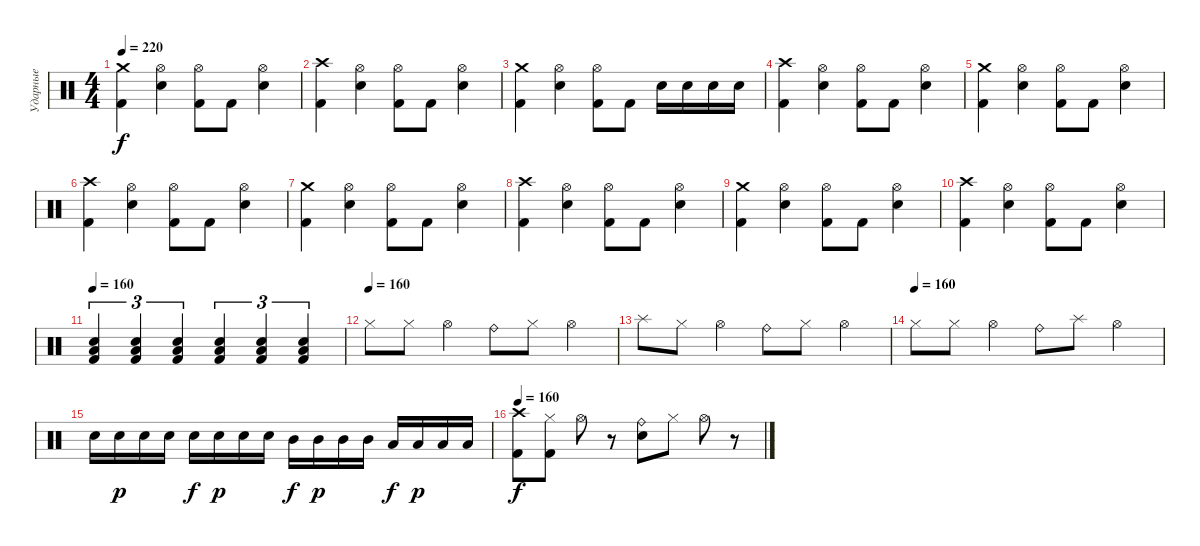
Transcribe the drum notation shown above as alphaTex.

\track ("Ударные" "Ударные") {instrument percussion}
\staff {score}
\articulation defaults
\ts (4 4)
\tempo 220
\clef neutral
\ks c
("Crash medium (hit)" "Kick (hit) 2").4{dy f} ("Hi-Hat (open)" "Electric Snare (hit)").4 ("Hi-Hat (open)" "Kick (hit) 2").8 "Kick (hit) 2".8 ("Hi-Hat (open)" "Electric Snare (hit)").4 |
("Crash high (hit)" "Kick (hit) 2").4 ("Hi-Hat (open)" "Electric Snare (hit)").4 ("Hi-Hat (open)" "Kick (hit) 2").8 "Kick (hit) 2".8 ("Hi-Hat (open)" "Electric Snare (hit)").4 |
("Crash medium (hit)" "Kick (hit) 2").4 ("Hi-Hat (open)" "Electric Snare (hit)").4 ("Hi-Hat (open)" "Kick (hit) 2").8 "Kick (hit) 2".8 "Electric Snare (hit)".16 "Electric Snare (hit)".16 "Electric Snare (hit)".16 "Electric Snare (hit)".16 |
("Crash high (hit)" "Kick (hit) 2").4 ("Hi-Hat (open)" "Electric Snare (hit)").4 ("Hi-Hat (open)" "Kick (hit) 2").8 "Kick (hit) 2".8 ("Hi-Hat (open)" "Electric Snare (hit)").4 |
("Crash medium (hit)" "Kick (hit) 2").4 ("Hi-Hat (open)" "Electric Snare (hit)").4 ("Hi-Hat (open)" "Kick (hit) 2").8 "Kick (hit) 2".8 ("Hi-Hat (open)" "Electric Snare (hit)").4 |
("Crash high (hit)" "Kick (hit) 2").4 ("Hi-Hat (open)" "Electric Snare (hit)").4 ("Hi-Hat (open)" "Kick (hit) 2").8 "Kick (hit) 2".8 ("Hi-Hat (open)" "Electric Snare (hit)").4 |
("Crash medium (hit)" "Kick (hit) 2").4 ("Hi-Hat (open)" "Electric Snare (hit)").4 ("Hi-Hat (open)" "Kick (hit) 2").8 "Kick (hit) 2".8 ("Hi-Hat (open)" "Electric Snare (hit)").4 |
("Crash high (hit)" "Kick (hit) 2").4 ("Hi-Hat (open)" "Electric Snare (hit)").4 ("Hi-Hat (open)" "Kick (hit) 2").8 "Kick (hit) 2".8 ("Hi-Hat (open)" "Electric Snare (hit)").4 |
("Crash medium (hit)" "Kick (hit) 2").4 ("Hi-Hat (open)" "Electric Snare (hit)").4 ("Hi-Hat (open)" "Kick (hit) 2").8 "Kick (hit) 2".8 ("Hi-Hat (open)" "Electric Snare (hit)").4 |
("Crash high (hit)" "Kick (hit) 2").4 ("Hi-Hat (open)" "Electric Snare (hit)").4 ("Hi-Hat (open)" "Kick (hit) 2").8 "Kick (hit) 2".8 ("Hi-Hat (open)" "Electric Snare (hit)").4 |
\tempo 160
("Low Tom (hit)" "Electric Snare (hit)" "Kick (hit) 2").4{tu (3 2)} ("Low Tom (hit)" "Electric Snare (hit)" "Kick (hit) 2").4{tu (3 2)} ("Low Tom (hit)" "Electric Snare (hit)" "Kick (hit) 2").4{tu (3 2)} ("Low Tom (hit)" "Electric Snare (hit)" "Kick (hit) 2").4{tu (3 2)} ("Low Tom (hit)" "Electric Snare (hit)" "Kick (hit) 2").4{tu (3 2)} ("Low Tom (hit)" "Electric Snare (hit)" "Kick (hit) 2").4{tu (3 2)} |
\tempo (160)
"Hi-Hat (closed)".8 "Hi-Hat (closed)".8 "Hi-Hat (open)".4 "Ride (bell)".8 "Hi-Hat (closed)".8 "Hi-Hat (open)".4 |
"Splash (hit)".8 "Hi-Hat (closed)".8 "Hi-Hat (open)".4 "Ride (bell)".8 "Hi-Hat (closed)".8 "Hi-Hat (open)".4 |
\tempo (160)
"Hi-Hat (closed)".8 "Hi-Hat (closed)".8 "Hi-Hat (open)".4 "Ride (bell)".8 "Splash (hit)".8 "Hi-Hat (open)".4 |
"Electric Snare (hit)".16 "Electric Snare (hit)".16{dy p} "Electric Snare (hit)".16 "Electric Snare (hit)".16 "Electric Snare (hit)".16{dy f} "Electric Snare (hit)".16{dy p} "Electric Snare (hit)".16 "Electric Snare (hit)".16 "Mid Tom (hit)".16{dy f} "Mid Tom (hit)".16{dy p} "Mid Tom (hit)".16 "Mid Tom (hit)".16 "Low Tom (hit)".16{dy f} "Low Tom (hit)".16{dy p} "Low Tom (hit)".16 "Low Tom (hit)".16 |
\tempo 160
("Crash high (hit)" "Kick (hit) 2").8{dy f} ("Hi-Hat (closed)" "Kick (hit) 2").8 "Hi-Hat (open)".8 r.8 ("Ride (bell)" "Electric Snare (hit)").8 "Hi-Hat (closed)".8 "Hi-Hat (open)".8 r.8
